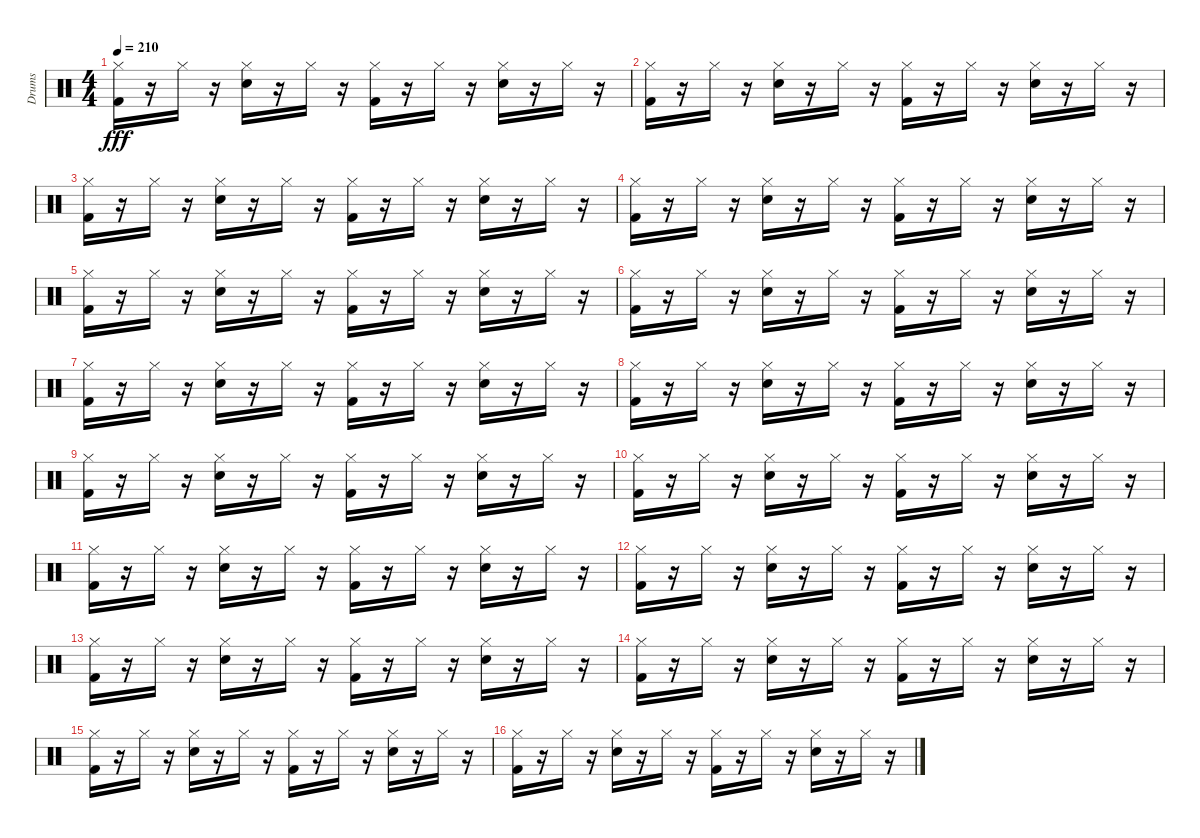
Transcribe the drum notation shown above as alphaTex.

\track ("Drums" "Drums") {instrument percussion}
\staff {score}
\articulation defaults
\ts (4 4)
\tempo 210
\clef neutral
\ks c
("Hi-Hat (closed)" "Kick (hit) 2").16{dy fff} r.16 "Hi-Hat (closed)".16 r.16 ("Snare (hit) 2" "Hi-Hat (closed)").16 r.16 "Hi-Hat (closed)".16 r.16 ("Hi-Hat (closed)" "Kick (hit) 2").16 r.16 "Hi-Hat (closed)".16 r.16 ("Snare (hit) 2" "Hi-Hat (closed)").16 r.16 "Hi-Hat (closed)".16 r.16 |
("Hi-Hat (closed)" "Kick (hit) 2").16 r.16 "Hi-Hat (closed)".16 r.16 ("Hi-Hat (closed)" "Snare (hit) 2").16 r.16 "Hi-Hat (closed)".16 r.16 ("Hi-Hat (closed)" "Kick (hit) 2").16 r.16 "Hi-Hat (closed)".16 r.16 ("Snare (hit) 2" "Hi-Hat (closed)").16 r.16 "Hi-Hat (closed)".16 r.16 |
("Kick (hit) 2" "Hi-Hat (closed)").16 r.16 "Hi-Hat (closed)".16 r.16 ("Snare (hit) 2" "Hi-Hat (closed)").16 r.16 "Hi-Hat (closed)".16 r.16 ("Hi-Hat (closed)" "Kick (hit) 2").16 r.16 "Hi-Hat (closed)".16 r.16 ("Hi-Hat (closed)" "Snare (hit) 2").16 r.16 "Hi-Hat (closed)".16 r.16 |
("Kick (hit) 2" "Hi-Hat (closed)").16 r.16 "Hi-Hat (closed)".16 r.16 ("Snare (hit) 2" "Hi-Hat (closed)").16 r.16 "Hi-Hat (closed)".16 r.16 ("Hi-Hat (closed)" "Kick (hit) 2").16 r.16 "Hi-Hat (closed)".16 r.16 ("Snare (hit) 2" "Hi-Hat (closed)").16 r.16 "Hi-Hat (closed)".16 r.16 |
("Hi-Hat (closed)" "Kick (hit) 2").16 r.16 "Hi-Hat (closed)".16 r.16 ("Snare (hit) 2" "Hi-Hat (closed)").16 r.16 "Hi-Hat (closed)".16 r.16 ("Kick (hit) 2" "Hi-Hat (closed)").16 r.16 "Hi-Hat (closed)".16 r.16 ("Snare (hit) 2" "Hi-Hat (closed)").16 r.16 "Hi-Hat (closed)".16 r.16 |
("Hi-Hat (closed)" "Kick (hit) 2").16 r.16 "Hi-Hat (closed)".16 r.16 ("Hi-Hat (closed)" "Snare (hit) 2").16 r.16 "Hi-Hat (closed)".16 r.16 ("Hi-Hat (closed)" "Kick (hit) 2").16 r.16 "Hi-Hat (closed)".16 r.16 ("Snare (hit) 2" "Hi-Hat (closed)").16 r.16 "Hi-Hat (closed)".16 r.16 |
("Kick (hit) 2" "Hi-Hat (closed)").16 r.16 "Hi-Hat (closed)".16 r.16 ("Snare (hit) 2" "Hi-Hat (closed)").16 r.16 "Hi-Hat (closed)".16 r.16 ("Hi-Hat (closed)" "Kick (hit) 2").16 r.16 "Hi-Hat (closed)".16 r.16 ("Hi-Hat (closed)" "Snare (hit) 2").16 r.16 "Hi-Hat (closed)".16 r.16 |
("Hi-Hat (closed)" "Kick (hit) 2").16 r.16 "Hi-Hat (closed)".16 r.16 ("Snare (hit) 2" "Hi-Hat (closed)").16 r.16 "Hi-Hat (closed)".16 r.16 ("Kick (hit) 2" "Hi-Hat (closed)").16 r.16 "Hi-Hat (closed)".16 r.16 ("Snare (hit) 2" "Hi-Hat (closed)").16 r.16 "Hi-Hat (closed)".16 r.16 |
("Kick (hit) 2" "Hi-Hat (closed)").16 r.16 "Hi-Hat (closed)".16 r.16 ("Snare (hit) 2" "Hi-Hat (closed)").16 r.16 "Hi-Hat (closed)".16 r.16 ("Hi-Hat (closed)" "Kick (hit) 2").16 r.16 "Hi-Hat (closed)".16 r.16 ("Snare (hit) 2" "Hi-Hat (closed)").16 r.16 "Hi-Hat (closed)".16 r.16 |
("Kick (hit) 2" "Hi-Hat (closed)").16 r.16 "Hi-Hat (closed)".16 r.16 ("Hi-Hat (closed)" "Snare (hit) 2").16 r.16 "Hi-Hat (closed)".16 r.16 ("Kick (hit) 2" "Hi-Hat (closed)").16 r.16 "Hi-Hat (closed)".16 r.16 ("Snare (hit) 2" "Hi-Hat (closed)").16 r.16 "Hi-Hat (closed)".16 r.16 |
("Hi-Hat (closed)" "Kick (hit) 2").16 r.16 "Hi-Hat (closed)".16 r.16 ("Snare (hit) 2" "Hi-Hat (closed)").16 r.16 "Hi-Hat (closed)".16 r.16 ("Hi-Hat (closed)" "Kick (hit) 2").16 r.16 "Hi-Hat (closed)".16 r.16 ("Snare (hit) 2" "Hi-Hat (closed)").16 r.16 "Hi-Hat (closed)".16 r.16 |
("Hi-Hat (closed)" "Kick (hit) 2").16 r.16 "Hi-Hat (closed)".16 r.16 ("Hi-Hat (closed)" "Snare (hit) 2").16 r.16 "Hi-Hat (closed)".16 r.16 ("Hi-Hat (closed)" "Kick (hit) 2").16 r.16 "Hi-Hat (closed)".16 r.16 ("Snare (hit) 2" "Hi-Hat (closed)").16 r.16 "Hi-Hat (closed)".16 r.16 |
("Kick (hit) 2" "Hi-Hat (closed)").16 r.16 "Hi-Hat (closed)".16 r.16 ("Snare (hit) 2" "Hi-Hat (closed)").16 r.16 "Hi-Hat (closed)".16 r.16 ("Hi-Hat (closed)" "Kick (hit) 2").16 r.16 "Hi-Hat (closed)".16 r.16 ("Hi-Hat (closed)" "Snare (hit) 2").16 r.16 "Hi-Hat (closed)".16 r.16 |
("Hi-Hat (closed)" "Kick (hit) 2").16 r.16 "Hi-Hat (closed)".16 r.16 ("Hi-Hat (closed)" "Snare (hit) 2").16 r.16 "Hi-Hat (closed)".16 r.16 ("Hi-Hat (closed)" "Kick (hit) 2").16 r.16 "Hi-Hat (closed)".16 r.16 ("Snare (hit) 2" "Hi-Hat (closed)").16 r.16 "Hi-Hat (closed)".16 r.16 |
("Kick (hit) 2" "Hi-Hat (closed)").16 r.16 "Hi-Hat (closed)".16 r.16 ("Hi-Hat (closed)" "Snare (hit) 2").16 r.16 "Hi-Hat (closed)".16 r.16 ("Kick (hit) 2" "Hi-Hat (closed)").16 r.16 "Hi-Hat (closed)".16 r.16 ("Snare (hit) 2" "Hi-Hat (closed)").16 r.16 "Hi-Hat (closed)".16 r.16 |
("Kick (hit) 2" "Hi-Hat (closed)").16 r.16 "Hi-Hat (closed)".16 r.16 ("Snare (hit) 2" "Hi-Hat (closed)").16 r.16 "Hi-Hat (closed)".16 r.16 ("Kick (hit) 2" "Hi-Hat (closed)").16 r.16 "Hi-Hat (closed)".16 r.16 ("Hi-Hat (closed)" "Snare (hit) 2").16 r.16 "Hi-Hat (closed)".16 r.16
